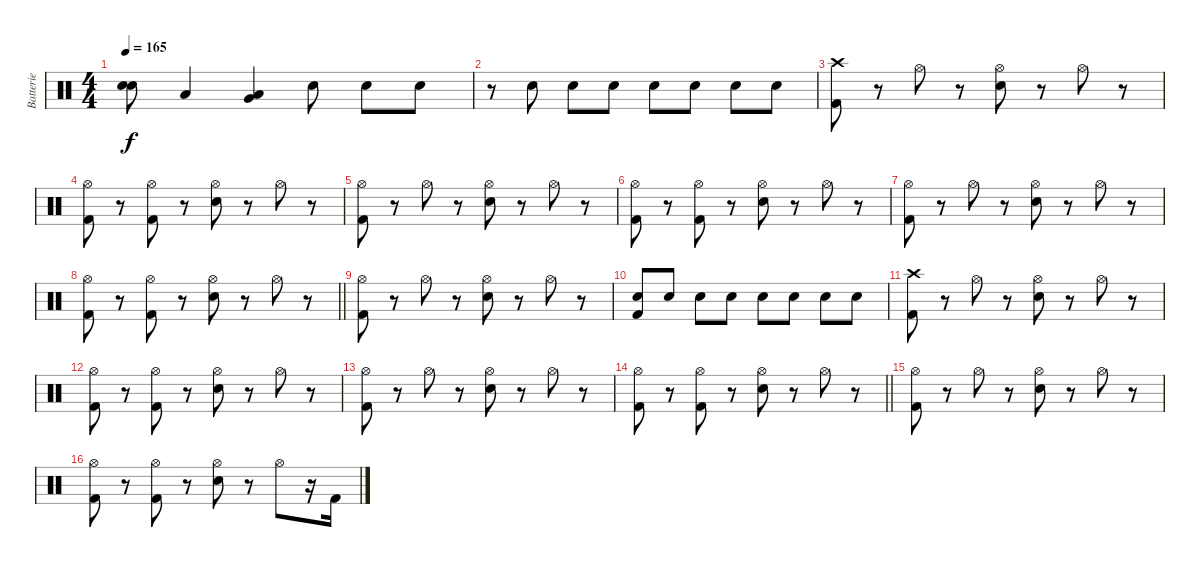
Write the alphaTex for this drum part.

\track ("Batterie" "Batterie") {instrument percussion}
\staff {score}
\articulation defaults
\ts (4 4)
\tempo 165
\clef neutral
\ks c
("Electric Snare (hit)" "Electric Snare (hit)").8{bu 120 dy f} "Low Tom (hit)".4 ("Low Tom (hit)" "Very Low Tom (hit)").4{bu 120} "Electric Snare (hit)".8 "Electric Snare (hit)".8 "Electric Snare (hit)".8 |
r.8 "Electric Snare (hit)".8 "Electric Snare (hit)".8 "Electric Snare (hit)".8 "Electric Snare (hit)".8 "Electric Snare (hit)".8 "Electric Snare (hit)".8 "Electric Snare (hit)".8 |
("Crash high (hit)" "Kick (hit) 2").8 r.8 "Hi-Hat (open)".8 r.8 ("Hi-Hat (open)" "Electric Snare (hit)").8 r.8 "Hi-Hat (open)".8 r.8 |
("Hi-Hat (open)" "Kick (hit) 2").8 r.8 ("Hi-Hat (open)" "Kick (hit) 2").8 r.8 ("Hi-Hat (open)" "Electric Snare (hit)").8 r.8 "Hi-Hat (open)".8 r.8 |
("Hi-Hat (open)" "Kick (hit) 2").8 r.8 "Hi-Hat (open)".8 r.8 ("Hi-Hat (open)" "Electric Snare (hit)").8 r.8 "Hi-Hat (open)".8 r.8 |
("Hi-Hat (open)" "Kick (hit) 2").8 r.8 ("Hi-Hat (open)" "Kick (hit) 2").8 r.8 ("Hi-Hat (open)" "Electric Snare (hit)").8 r.8 "Hi-Hat (open)".8 r.8 |
("Hi-Hat (open)" "Kick (hit) 2").8 r.8 "Hi-Hat (open)".8 r.8 ("Hi-Hat (open)" "Electric Snare (hit)").8 r.8 "Hi-Hat (open)".8 r.8 |
\barLineRight lightlight
("Hi-Hat (open)" "Kick (hit) 2").8 r.8 ("Hi-Hat (open)" "Kick (hit) 2").8 r.8 ("Hi-Hat (open)" "Electric Snare (hit)").8 r.8 "Hi-Hat (open)".8 r.8 |
("Hi-Hat (open)" "Kick (hit) 2").8 r.8 "Hi-Hat (open)".8 r.8 ("Hi-Hat (open)" "Electric Snare (hit)").8 r.8 "Hi-Hat (open)".8 r.8 |
("Electric Snare (hit)" "Kick (hit) 2").8 "Electric Snare (hit)".8 "Electric Snare (hit)".8 "Electric Snare (hit)".8 "Electric Snare (hit)".8 "Electric Snare (hit)".8 "Electric Snare (hit)".8 "Electric Snare (hit)".8 |
("Crash high (hit)" "Kick (hit) 2").8 r.8 "Hi-Hat (open)".8 r.8 ("Hi-Hat (open)" "Electric Snare (hit)").8 r.8 "Hi-Hat (open)".8 r.8 |
("Hi-Hat (open)" "Kick (hit) 2").8 r.8 ("Hi-Hat (open)" "Kick (hit) 2").8 r.8 ("Hi-Hat (open)" "Electric Snare (hit)").8 r.8 "Hi-Hat (open)".8 r.8 |
("Hi-Hat (open)" "Kick (hit) 2").8 r.8 "Hi-Hat (open)".8 r.8 ("Hi-Hat (open)" "Electric Snare (hit)").8 r.8 "Hi-Hat (open)".8 r.8 |
\barLineRight lightlight
("Hi-Hat (open)" "Kick (hit) 2").8 r.8 ("Hi-Hat (open)" "Kick (hit) 2").8 r.8 ("Hi-Hat (open)" "Electric Snare (hit)").8 r.8 "Hi-Hat (open)".8 r.8 |
("Hi-Hat (open)" "Kick (hit) 2").8 r.8 "Hi-Hat (open)".8 r.8 ("Hi-Hat (open)" "Electric Snare (hit)").8 r.8 "Hi-Hat (open)".8 r.8 |
("Hi-Hat (open)" "Kick (hit) 2").8 r.8 ("Hi-Hat (open)" "Kick (hit) 2").8 r.8 ("Hi-Hat (open)" "Electric Snare (hit)").8 r.8 "Hi-Hat (open)".8 r.16 "Kick (hit) 2".16
